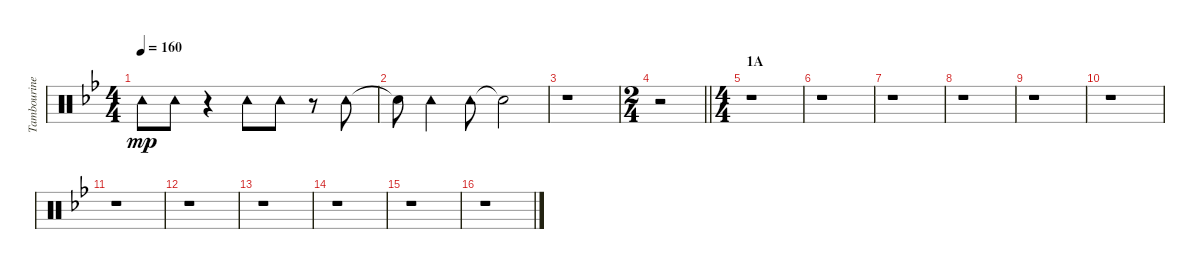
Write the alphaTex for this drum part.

\track ("Tambourine" "Tambourine") {instrument percussion}
\staff {score}
\articulation defaults
\ts (4 4)
\tempo 160
\clef neutral
\ks bb "Tambourine (hit)".8{dy mp} "Tambourine (hit)".8
r.4 "Tambourine (hit)".8 "Tambourine (hit)".8 r.8 "Tambourine (hit)".8 |
"Snare (hit)"{t}.8 "Tambourine (hit)".4 "Tambourine (hit)".8 "Snare (hit)"{t}.2 |
r.1 |
\ts (2 4)
\barLineRight lightlight
r.2 |
\ts (4 4)
\section ("" "1A")
r.1 |
r.1 |
r.1 |
r.1 |
r.1 |
r.1 |
r.1 |
r.1 |
r.1 |
r.1 |
r.1 |
r.1
